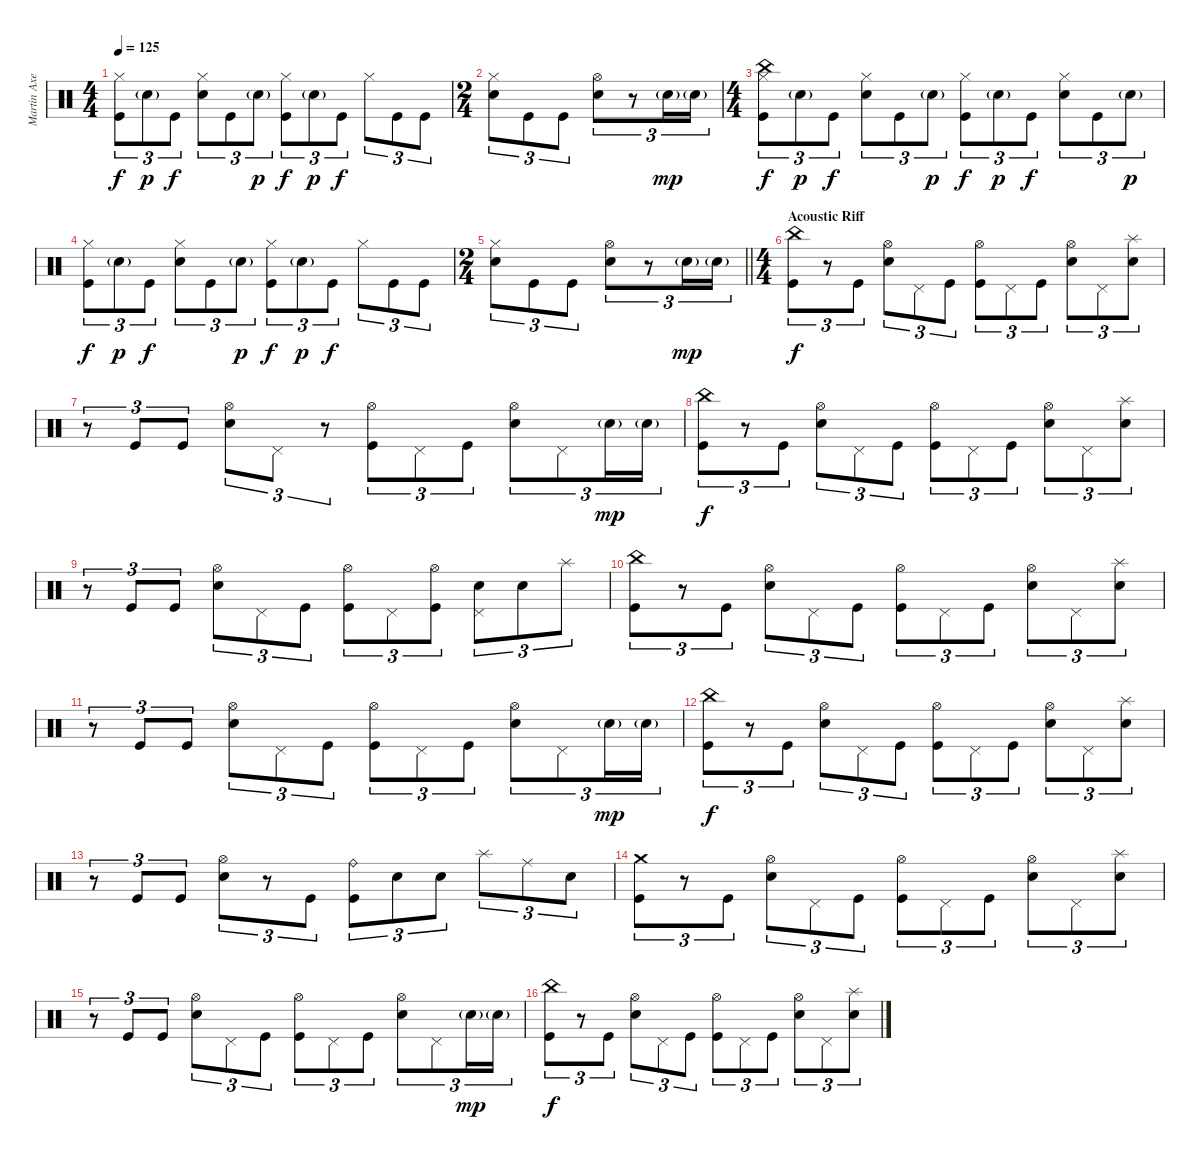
\track ("Martin Axenrot" "Martin Axe") {instrument percussion}
\staff {score}
\articulation defaults
\ts (4 4)
\tempo 125
\clef neutral
\ks c
("Hi-Hat (closed)" "Kick (hit)").8{tu (3 2) dy f} "Snare (hit) 2"{g}.8{tu (3 2) dy p} "Kick (hit)".8{tu (3 2) dy f} ("Hi-Hat (closed)" "Snare (hit) 2").8{tu (3 2)} "Kick (hit)".8{tu (3 2)} "Snare (hit) 2"{g}.8{tu (3 2) dy p} ("Hi-Hat (closed)" "Kick (hit)").8{tu (3 2) dy f} "Snare (hit) 2"{g}.8{tu (3 2) dy p} "Kick (hit)".8{tu (3 2) dy f} "Hi-Hat (closed)".8{tu (3 2)} "Kick (hit)".8{tu (3 2)} "Kick (hit)".8{tu (3 2)} |
\ts (2 4)
("Hi-Hat (closed)" "Snare (hit) 2").8{tu (3 2)} "Kick (hit)".8{tu (3 2)} "Kick (hit)".8{tu (3 2)} ("Hi-Hat (open)" "Snare (hit) 2").8{tu (3 2)} r.8{tu (3 2)} "Snare (hit) 2"{g}.16{tu (3 2) dy mp} "Snare (hit) 2"{g}.16{tu (3 2)} |
\ts (4 4)
("Hi-Hat (closed)" "China (hit)" "Kick (hit)").8{tu (3 2) dy f} "Snare (hit) 2"{g}.8{tu (3 2) dy p} "Kick (hit)".8{tu (3 2) dy f} ("Hi-Hat (closed)" "Snare (hit) 2").8{tu (3 2)} "Kick (hit)".8{tu (3 2)} "Snare (hit) 2"{g}.8{tu (3 2) dy p} ("Hi-Hat (closed)" "Kick (hit)").8{tu (3 2) dy f} "Snare (hit) 2"{g}.8{tu (3 2) dy p} "Kick (hit)".8{tu (3 2) dy f} ("Hi-Hat (closed)" "Snare (hit) 2").8{tu (3 2)} "Kick (hit)".8{tu (3 2)} "Snare (hit) 2"{g}.8{tu (3 2) dy p} |
("Hi-Hat (closed)" "Kick (hit)").8{tu (3 2) dy f} "Snare (hit) 2"{g}.8{tu (3 2) dy p} "Kick (hit)".8{tu (3 2) dy f} ("Hi-Hat (closed)" "Snare (hit) 2").8{tu (3 2)} "Kick (hit)".8{tu (3 2)} "Snare (hit) 2"{g}.8{tu (3 2) dy p} ("Hi-Hat (closed)" "Kick (hit)").8{tu (3 2) dy f} "Snare (hit) 2"{g}.8{tu (3 2) dy p} "Kick (hit)".8{tu (3 2) dy f} "Hi-Hat (closed)".8{tu (3 2)} "Kick (hit)".8{tu (3 2)} "Kick (hit)".8{tu (3 2)} |
\ts (2 4)
\barLineRight lightlight
("Hi-Hat (closed)" "Snare (hit) 2").8{tu (3 2)} "Kick (hit)".8{tu (3 2)} "Kick (hit)".8{tu (3 2)} ("Hi-Hat (open)" "Snare (hit) 2").8{tu (3 2)} r.8{tu (3 2)} "Snare (hit) 2"{g}.16{tu (3 2) dy mp} "Snare (hit) 2"{g}.16{tu (3 2)} |
\ts (4 4)
\section ("" "Acoustic Riff")
("China (hit)" "Kick (hit)").8{tu (3 2) dy f} r.8{tu (3 2)} "Kick (hit)".8{tu (3 2)} ("Hi-Hat (open)" "Snare (hit) 2").8{tu (3 2)} "Pedal Hi-Hat (hit)".8{tu (3 2)} "Kick (hit)".8{tu (3 2)} ("Hi-Hat (open)" "Kick (hit)").8{tu (3 2)} "Pedal Hi-Hat (hit)".8{tu (3 2)} "Kick (hit)".8{tu (3 2)} ("Hi-Hat (open)" "Snare (hit) 2").8{tu (3 2)} "Pedal Hi-Hat (hit)".8{tu (3 2)} ("Splash (hit)" "Snare (hit) 2").8{tu (3 2)} |
r.8{tu (3 2)} "Kick (hit)".8{tu (3 2)} "Kick (hit)".8{tu (3 2)} ("Hi-Hat (open)" "Snare (hit) 2").8{tu (3 2)} "Pedal Hi-Hat (hit)".8{tu (3 2)} r.8{tu (3 2)} ("Hi-Hat (open)" "Kick (hit)").8{tu (3 2)} "Pedal Hi-Hat (hit)".8{tu (3 2)} "Kick (hit)".8{tu (3 2)} ("Hi-Hat (open)" "Snare (hit) 2").8{tu (3 2)} "Pedal Hi-Hat (hit)".8{tu (3 2)} "Snare (hit) 2"{g}.16{tu (3 2) dy mp} "Snare (hit) 2"{g}.16{tu (3 2)} |
("China (hit)" "Kick (hit)").8{tu (3 2) dy f} r.8{tu (3 2)} "Kick (hit)".8{tu (3 2)} ("Hi-Hat (open)" "Snare (hit) 2").8{tu (3 2)} "Pedal Hi-Hat (hit)".8{tu (3 2)} "Kick (hit)".8{tu (3 2)} ("Hi-Hat (open)" "Kick (hit)").8{tu (3 2)} "Pedal Hi-Hat (hit)".8{tu (3 2)} "Kick (hit)".8{tu (3 2)} ("Hi-Hat (open)" "Snare (hit) 2").8{tu (3 2)} "Pedal Hi-Hat (hit)".8{tu (3 2)} ("Splash (hit)" "Snare (hit) 2").8{tu (3 2)} |
r.8{tu (3 2)} "Kick (hit)".8{tu (3 2)} "Kick (hit)".8{tu (3 2)} ("Hi-Hat (open)" "Snare (hit) 2").8{tu (3 2)} "Pedal Hi-Hat (hit)".8{tu (3 2)} "Kick (hit)".8{tu (3 2)} ("Hi-Hat (open)" "Kick (hit)").8{tu (3 2)} "Pedal Hi-Hat (hit)".8{tu (3 2)} ("Hi-Hat (open)" "Kick (hit)").8{tu (3 2)} ("Pedal Hi-Hat (hit)" "Snare (hit) 2").8{tu (3 2)} "Snare (hit) 2".8{tu (3 2)} "Splash (hit)".8{tu (3 2)} |
("China (hit)" "Kick (hit)").8{tu (3 2)} r.8{tu (3 2)} "Kick (hit)".8{tu (3 2)} ("Hi-Hat (open)" "Snare (hit) 2").8{tu (3 2)} "Pedal Hi-Hat (hit)".8{tu (3 2)} "Kick (hit)".8{tu (3 2)} ("Hi-Hat (open)" "Kick (hit)").8{tu (3 2)} "Pedal Hi-Hat (hit)".8{tu (3 2)} "Kick (hit)".8{tu (3 2)} ("Hi-Hat (open)" "Snare (hit) 2").8{tu (3 2)} "Pedal Hi-Hat (hit)".8{tu (3 2)} ("Splash (hit)" "Snare (hit) 2").8{tu (3 2)} |
r.8{tu (3 2)} "Kick (hit)".8{tu (3 2)} "Kick (hit)".8{tu (3 2)} ("Hi-Hat (open)" "Snare (hit) 2").8{tu (3 2)} "Pedal Hi-Hat (hit)".8{tu (3 2)} "Kick (hit)".8{tu (3 2)} ("Hi-Hat (open)" "Kick (hit)").8{tu (3 2)} "Pedal Hi-Hat (hit)".8{tu (3 2)} "Kick (hit)".8{tu (3 2)} ("Hi-Hat (open)" "Snare (hit) 2").8{tu (3 2)} "Pedal Hi-Hat (hit)".8{tu (3 2)} "Snare (hit) 2"{g}.16{tu (3 2) dy mp} "Snare (hit) 2"{g}.16{tu (3 2)} |
("China (hit)" "Kick (hit)").8{tu (3 2) dy f} r.8{tu (3 2)} "Kick (hit)".8{tu (3 2)} ("Hi-Hat (open)" "Snare (hit) 2").8{tu (3 2)} "Pedal Hi-Hat (hit)".8{tu (3 2)} "Kick (hit)".8{tu (3 2)} ("Hi-Hat (open)" "Kick (hit)").8{tu (3 2)} "Pedal Hi-Hat (hit)".8{tu (3 2)} "Kick (hit)".8{tu (3 2)} ("Hi-Hat (open)" "Snare (hit) 2").8{tu (3 2)} "Pedal Hi-Hat (hit)".8{tu (3 2)} ("Splash (hit)" "Snare (hit) 2").8{tu (3 2)} |
r.8{tu (3 2)} "Kick (hit)".8{tu (3 2)} "Kick (hit)".8{tu (3 2)} ("Hi-Hat (open)" "Snare (hit) 2").8{tu (3 2)} r.8{tu (3 2)} "Kick (hit)".8{tu (3 2)} ("Ride (bell)" "Kick (hit)").8{tu (3 2)} "Snare (hit) 2".8{tu (3 2)} "Snare (hit) 2".8{tu (3 2)} "Splash (hit)".8{tu (3 2)} "Ride (middle)".8{tu (3 2)} "Snare (hit) 2".8{tu (3 2)} |
("Crash medium (hit)" "Kick (hit)").8{tu (3 2)} r.8{tu (3 2)} "Kick (hit)".8{tu (3 2)} ("Hi-Hat (open)" "Snare (hit) 2").8{tu (3 2)} "Pedal Hi-Hat (hit)".8{tu (3 2)} "Kick (hit)".8{tu (3 2)} ("Hi-Hat (open)" "Kick (hit)").8{tu (3 2)} "Pedal Hi-Hat (hit)".8{tu (3 2)} "Kick (hit)".8{tu (3 2)} ("Hi-Hat (open)" "Snare (hit) 2").8{tu (3 2)} "Pedal Hi-Hat (hit)".8{tu (3 2)} ("Splash (hit)" "Snare (hit) 2").8{tu (3 2)} |
r.8{tu (3 2)} "Kick (hit)".8{tu (3 2)} "Kick (hit)".8{tu (3 2)} ("Hi-Hat (open)" "Snare (hit) 2").8{tu (3 2)} "Pedal Hi-Hat (hit)".8{tu (3 2)} "Kick (hit)".8{tu (3 2)} ("Hi-Hat (open)" "Kick (hit)").8{tu (3 2)} "Pedal Hi-Hat (hit)".8{tu (3 2)} "Kick (hit)".8{tu (3 2)} ("Hi-Hat (open)" "Snare (hit) 2").8{tu (3 2)} "Pedal Hi-Hat (hit)".8{tu (3 2)} "Snare (hit) 2"{g}.16{tu (3 2) dy mp} "Snare (hit) 2"{g}.16{tu (3 2)} |
("China (hit)" "Kick (hit)").8{tu (3 2) dy f} r.8{tu (3 2)} "Kick (hit)".8{tu (3 2)} ("Hi-Hat (open)" "Snare (hit) 2").8{tu (3 2)} "Pedal Hi-Hat (hit)".8{tu (3 2)} "Kick (hit)".8{tu (3 2)} ("Hi-Hat (open)" "Kick (hit)").8{tu (3 2)} "Pedal Hi-Hat (hit)".8{tu (3 2)} "Kick (hit)".8{tu (3 2)} ("Hi-Hat (open)" "Snare (hit) 2").8{tu (3 2)} "Pedal Hi-Hat (hit)".8{tu (3 2)} ("Splash (hit)" "Snare (hit) 2").8{tu (3 2)}
